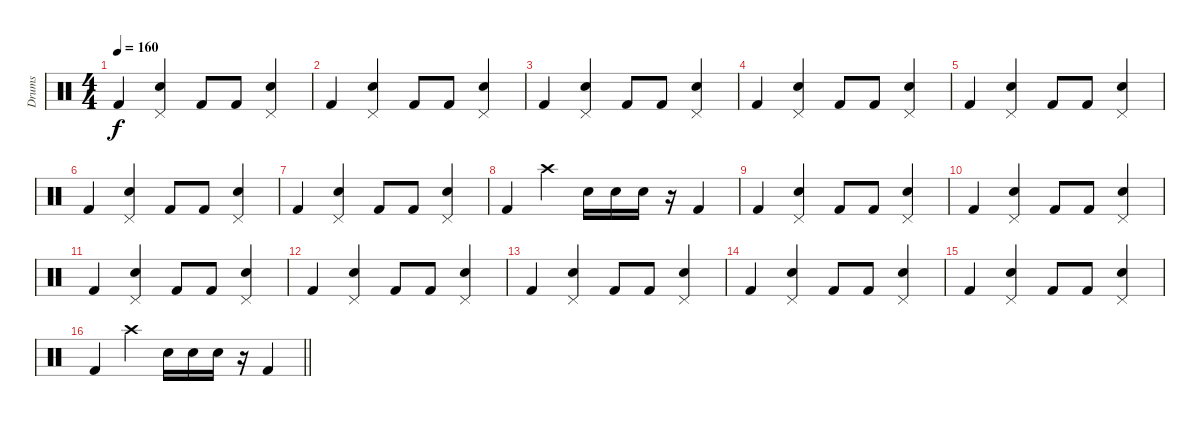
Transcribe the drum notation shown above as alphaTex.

\track ("Drums" "Drums") {instrument percussion}
\staff {score}
\articulation defaults
\ts (4 4)
\tempo 160
\clef neutral
\ks c "Kick (hit) 2".4{dy f}
("Pedal Hi-Hat (hit)" "Electric Snare (hit)").4 "Kick (hit) 2".8 "Kick (hit) 2".8 ("Pedal Hi-Hat (hit)" "Electric Snare (hit)").4 |
"Kick (hit) 2".4 ("Pedal Hi-Hat (hit)" "Electric Snare (hit)").4 "Kick (hit) 2".8 "Kick (hit) 2".8 ("Pedal Hi-Hat (hit)" "Electric Snare (hit)").4 |
"Kick (hit) 2".4 ("Pedal Hi-Hat (hit)" "Electric Snare (hit)").4 "Kick (hit) 2".8 "Kick (hit) 2".8 ("Pedal Hi-Hat (hit)" "Electric Snare (hit)").4 |
"Kick (hit) 2".4 ("Pedal Hi-Hat (hit)" "Electric Snare (hit)").4 "Kick (hit) 2".8 "Kick (hit) 2".8 ("Pedal Hi-Hat (hit)" "Electric Snare (hit)").4 |
"Kick (hit) 2".4 ("Pedal Hi-Hat (hit)" "Electric Snare (hit)").4 "Kick (hit) 2".8 "Kick (hit) 2".8 ("Pedal Hi-Hat (hit)" "Electric Snare (hit)").4 |
"Kick (hit) 2".4 ("Pedal Hi-Hat (hit)" "Electric Snare (hit)").4 "Kick (hit) 2".8 "Kick (hit) 2".8 ("Pedal Hi-Hat (hit)" "Electric Snare (hit)").4 |
"Kick (hit) 2".4 ("Pedal Hi-Hat (hit)" "Electric Snare (hit)").4 "Kick (hit) 2".8 "Kick (hit) 2".8 ("Pedal Hi-Hat (hit)" "Electric Snare (hit)").4 |
"Kick (hit) 2".4 "Crash high (hit)".4 "Snare (hit) 2".16 "Snare (hit) 2".16 "Snare (hit) 2".16 r.16 "Kick (hit) 2".4 |
"Kick (hit) 2".4 ("Pedal Hi-Hat (hit)" "Electric Snare (hit)").4 "Kick (hit) 2".8 "Kick (hit) 2".8 ("Pedal Hi-Hat (hit)" "Electric Snare (hit)").4 |
"Kick (hit) 2".4 ("Pedal Hi-Hat (hit)" "Electric Snare (hit)").4 "Kick (hit) 2".8 "Kick (hit) 2".8 ("Pedal Hi-Hat (hit)" "Electric Snare (hit)").4 |
"Kick (hit) 2".4 ("Pedal Hi-Hat (hit)" "Electric Snare (hit)").4 "Kick (hit) 2".8 "Kick (hit) 2".8 ("Pedal Hi-Hat (hit)" "Electric Snare (hit)").4 |
"Kick (hit) 2".4 ("Pedal Hi-Hat (hit)" "Electric Snare (hit)").4 "Kick (hit) 2".8 "Kick (hit) 2".8 ("Pedal Hi-Hat (hit)" "Electric Snare (hit)").4 |
"Kick (hit) 2".4 ("Pedal Hi-Hat (hit)" "Electric Snare (hit)").4 "Kick (hit) 2".8 "Kick (hit) 2".8 ("Pedal Hi-Hat (hit)" "Electric Snare (hit)").4 |
"Kick (hit) 2".4 ("Pedal Hi-Hat (hit)" "Electric Snare (hit)").4 "Kick (hit) 2".8 "Kick (hit) 2".8 ("Pedal Hi-Hat (hit)" "Electric Snare (hit)").4 |
"Kick (hit) 2".4 ("Pedal Hi-Hat (hit)" "Electric Snare (hit)").4 "Kick (hit) 2".8 "Kick (hit) 2".8 ("Pedal Hi-Hat (hit)" "Electric Snare (hit)").4 |
\barLineRight lightlight "Kick (hit) 2".4 "Crash high (hit)".4 "Snare (hit) 2".16 "Snare (hit) 2".16 "Snare (hit) 2".16
r.16 "Kick (hit) 2".4
